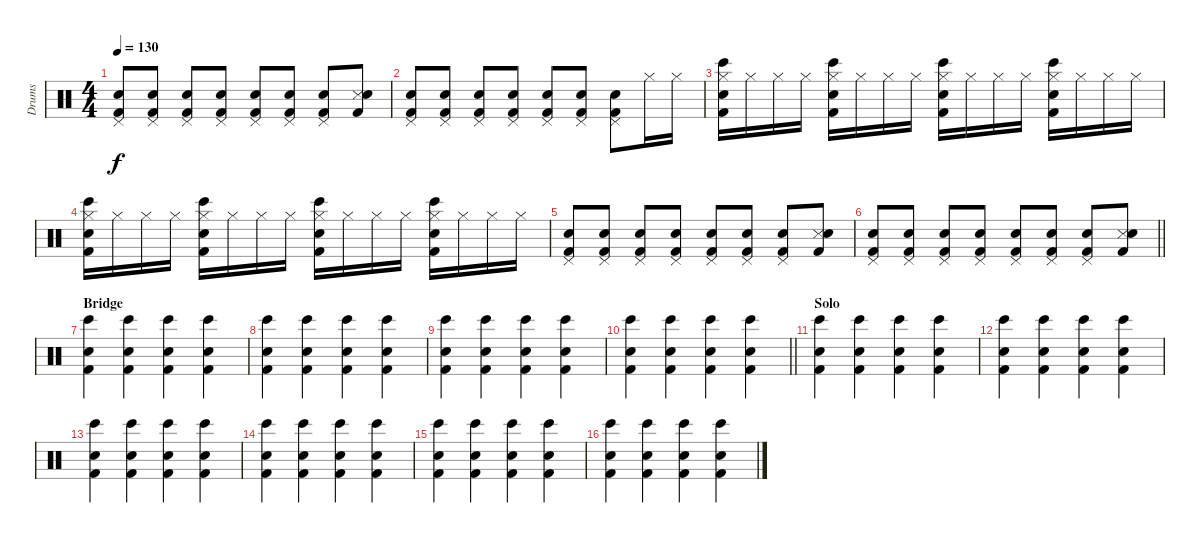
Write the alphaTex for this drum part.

\track ("Drums" "Drums") {instrument percussion}
\staff {score}
\articulation defaults
\ts (4 4)
\tempo 130
\clef neutral
\ks c
("Pedal Hi-Hat (hit)" "Kick (hit) 2" "Electric Snare (hit)").8{dy f} ("Pedal Hi-Hat (hit)" "Kick (hit) 2" "Electric Snare (hit)").8 ("Pedal Hi-Hat (hit)" "Kick (hit) 2" "Electric Snare (hit)").8 ("Pedal Hi-Hat (hit)" "Kick (hit) 2" "Electric Snare (hit)").8 ("Pedal Hi-Hat (hit)" "Kick (hit) 2" "Electric Snare (hit)").8 ("Pedal Hi-Hat (hit)" "Kick (hit) 2" "Electric Snare (hit)").8 ("Pedal Hi-Hat (hit)" "Kick (hit) 2" "Electric Snare (hit)").8 ("Snare (side stick) 3" "Kick (hit) 2" "Electric Snare (hit)").8 |
("Pedal Hi-Hat (hit)" "Kick (hit) 2" "Electric Snare (hit)").8 ("Pedal Hi-Hat (hit)" "Kick (hit) 2" "Electric Snare (hit)").8 ("Pedal Hi-Hat (hit)" "Kick (hit) 2" "Electric Snare (hit)").8 ("Pedal Hi-Hat (hit)" "Kick (hit) 2" "Electric Snare (hit)").8 ("Pedal Hi-Hat (hit)" "Kick (hit) 2" "Electric Snare (hit)").8 ("Pedal Hi-Hat (hit)" "Kick (hit) 2" "Electric Snare (hit)").8 ("Pedal Hi-Hat (hit)" "Kick (hit) 2" "Electric Snare (hit)").8 "Hi-Hat (closed)".16 "Hi-Hat (closed)".16 |
("Hi-Hat (closed)" "Electric Snare (hit)" "Kick (hit) 2" "Bongo High (hit)").16 "Hi-Hat (closed)".16 "Hi-Hat (closed)".16 "Hi-Hat (closed)".16 ("Hi-Hat (closed)" "Electric Snare (hit)" "Kick (hit) 2" "Bongo High (hit)").16 "Hi-Hat (closed)".16 "Hi-Hat (closed)".16 "Hi-Hat (closed)".16 ("Hi-Hat (closed)" "Electric Snare (hit)" "Kick (hit) 2" "Bongo High (hit)").16 "Hi-Hat (closed)".16 "Hi-Hat (closed)".16 "Hi-Hat (closed)".16 ("Hi-Hat (closed)" "Electric Snare (hit)" "Kick (hit) 2" "Bongo High (hit)").16 "Hi-Hat (closed)".16 "Hi-Hat (closed)".16 "Hi-Hat (closed)".16 |
("Hi-Hat (closed)" "Electric Snare (hit)" "Kick (hit) 2" "Bongo High (hit)").16 "Hi-Hat (closed)".16 "Hi-Hat (closed)".16 "Hi-Hat (closed)".16 ("Hi-Hat (closed)" "Electric Snare (hit)" "Kick (hit) 2" "Bongo High (hit)").16 "Hi-Hat (closed)".16 "Hi-Hat (closed)".16 "Hi-Hat (closed)".16 ("Hi-Hat (closed)" "Electric Snare (hit)" "Kick (hit) 2" "Bongo High (hit)").16 "Hi-Hat (closed)".16 "Hi-Hat (closed)".16 "Hi-Hat (closed)".16 ("Hi-Hat (closed)" "Electric Snare (hit)" "Kick (hit) 2" "Bongo High (hit)").16 "Hi-Hat (closed)".16 "Hi-Hat (closed)".16 "Hi-Hat (closed)".16 |
("Pedal Hi-Hat (hit)" "Kick (hit) 2" "Electric Snare (hit)").8 ("Pedal Hi-Hat (hit)" "Kick (hit) 2" "Electric Snare (hit)").8 ("Pedal Hi-Hat (hit)" "Kick (hit) 2" "Electric Snare (hit)").8 ("Pedal Hi-Hat (hit)" "Kick (hit) 2" "Electric Snare (hit)").8 ("Pedal Hi-Hat (hit)" "Kick (hit) 2" "Electric Snare (hit)").8 ("Pedal Hi-Hat (hit)" "Kick (hit) 2" "Electric Snare (hit)").8 ("Pedal Hi-Hat (hit)" "Kick (hit) 2" "Electric Snare (hit)").8 ("Snare (side stick) 3" "Kick (hit) 2" "Electric Snare (hit)").8 |
\barLineRight lightlight
("Pedal Hi-Hat (hit)" "Kick (hit) 2" "Electric Snare (hit)").8 ("Pedal Hi-Hat (hit)" "Kick (hit) 2" "Electric Snare (hit)").8 ("Pedal Hi-Hat (hit)" "Kick (hit) 2" "Electric Snare (hit)").8 ("Pedal Hi-Hat (hit)" "Kick (hit) 2" "Electric Snare (hit)").8 ("Pedal Hi-Hat (hit)" "Kick (hit) 2" "Electric Snare (hit)").8 ("Pedal Hi-Hat (hit)" "Kick (hit) 2" "Electric Snare (hit)").8 ("Pedal Hi-Hat (hit)" "Kick (hit) 2" "Electric Snare (hit)").8 ("Snare (side stick) 3" "Kick (hit) 2" "Electric Snare (hit)").8 |
\section ("" "Bridge")
("Electric Snare (hit)" "Kick (hit) 2" "Bongo High (hit)").4 ("Electric Snare (hit)" "Kick (hit) 2" "Bongo High (hit)").4 ("Electric Snare (hit)" "Kick (hit) 2" "Bongo High (hit)").4 ("Electric Snare (hit)" "Kick (hit) 2" "Bongo High (hit)").4 |
("Electric Snare (hit)" "Kick (hit) 2" "Bongo High (hit)").4 ("Electric Snare (hit)" "Kick (hit) 2" "Bongo High (hit)").4 ("Electric Snare (hit)" "Kick (hit) 2" "Bongo High (hit)").4 ("Electric Snare (hit)" "Kick (hit) 2" "Bongo High (hit)").4 |
("Electric Snare (hit)" "Kick (hit) 2" "Bongo High (hit)").4 ("Electric Snare (hit)" "Kick (hit) 2" "Bongo High (hit)").4 ("Electric Snare (hit)" "Kick (hit) 2" "Bongo High (hit)").4 ("Electric Snare (hit)" "Kick (hit) 2" "Bongo High (hit)").4 |
\barLineRight lightlight
("Electric Snare (hit)" "Kick (hit) 2" "Bongo High (hit)").4 ("Electric Snare (hit)" "Kick (hit) 2" "Bongo High (hit)").4 ("Electric Snare (hit)" "Kick (hit) 2" "Bongo High (hit)").4 ("Electric Snare (hit)" "Kick (hit) 2" "Bongo High (hit)").4 |
\section ("" "Solo")
("Electric Snare (hit)" "Kick (hit) 2" "Bongo High (hit)").4 ("Electric Snare (hit)" "Kick (hit) 2" "Bongo High (hit)").4 ("Electric Snare (hit)" "Kick (hit) 2" "Bongo High (hit)").4 ("Electric Snare (hit)" "Kick (hit) 2" "Bongo High (hit)").4 |
("Electric Snare (hit)" "Kick (hit) 2" "Bongo High (hit)").4 ("Electric Snare (hit)" "Kick (hit) 2" "Bongo High (hit)").4 ("Electric Snare (hit)" "Kick (hit) 2" "Bongo High (hit)").4 ("Electric Snare (hit)" "Kick (hit) 2" "Bongo High (hit)").4 |
("Electric Snare (hit)" "Kick (hit) 2" "Bongo High (hit)").4 ("Electric Snare (hit)" "Kick (hit) 2" "Bongo High (hit)").4 ("Electric Snare (hit)" "Kick (hit) 2" "Bongo High (hit)").4 ("Electric Snare (hit)" "Kick (hit) 2" "Bongo High (hit)").4 |
("Electric Snare (hit)" "Kick (hit) 2" "Bongo High (hit)").4 ("Electric Snare (hit)" "Kick (hit) 2" "Bongo High (hit)").4 ("Electric Snare (hit)" "Kick (hit) 2" "Bongo High (hit)").4 ("Electric Snare (hit)" "Kick (hit) 2" "Bongo High (hit)").4 |
("Electric Snare (hit)" "Kick (hit) 2" "Bongo High (hit)").4 ("Electric Snare (hit)" "Kick (hit) 2" "Bongo High (hit)").4 ("Electric Snare (hit)" "Kick (hit) 2" "Bongo High (hit)").4 ("Electric Snare (hit)" "Kick (hit) 2" "Bongo High (hit)").4 |
("Electric Snare (hit)" "Kick (hit) 2" "Bongo High (hit)").4 ("Electric Snare (hit)" "Kick (hit) 2" "Bongo High (hit)").4 ("Electric Snare (hit)" "Kick (hit) 2" "Bongo High (hit)").4 ("Electric Snare (hit)" "Kick (hit) 2" "Bongo High (hit)").4
